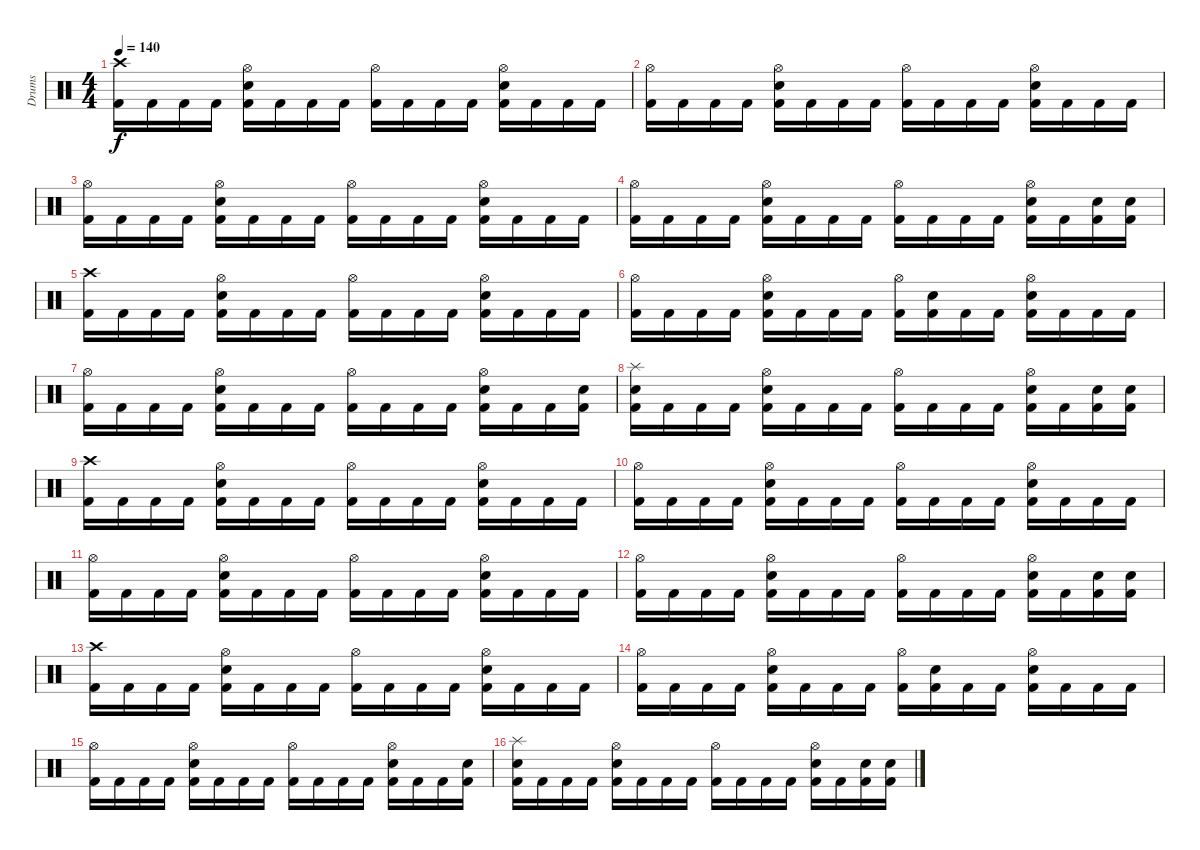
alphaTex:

\track ("Drums" "Drums") {instrument percussion}
\staff {score}
\articulation defaults
\ts (4 4)
\tempo 140
\clef neutral
\ks c
("Kick (hit) 2" "Crash high (hit)").16{dy f} "Kick (hit) 2".16 "Kick (hit) 2".16 "Kick (hit) 2".16 ("Kick (hit) 2" "Electric Snare (hit)" "Hi-Hat (open)").16 "Kick (hit) 2".16 "Kick (hit) 2".16 "Kick (hit) 2".16 ("Kick (hit) 2" "Hi-Hat (open)").16 "Kick (hit) 2".16 "Kick (hit) 2".16 "Kick (hit) 2".16 ("Kick (hit) 2" "Electric Snare (hit)" "Hi-Hat (open)").16 "Kick (hit) 2".16 "Kick (hit) 2".16 "Kick (hit) 2".16 |
("Kick (hit) 2" "Hi-Hat (open)").16 "Kick (hit) 2".16 "Kick (hit) 2".16 "Kick (hit) 2".16 ("Kick (hit) 2" "Electric Snare (hit)" "Hi-Hat (open)").16 "Kick (hit) 2".16 "Kick (hit) 2".16 "Kick (hit) 2".16 ("Kick (hit) 2" "Hi-Hat (open)").16 "Kick (hit) 2".16 "Kick (hit) 2".16 "Kick (hit) 2".16 ("Kick (hit) 2" "Electric Snare (hit)" "Hi-Hat (open)").16 "Kick (hit) 2".16 "Kick (hit) 2".16 "Kick (hit) 2".16 |
("Kick (hit) 2" "Hi-Hat (open)").16 "Kick (hit) 2".16 "Kick (hit) 2".16 "Kick (hit) 2".16 ("Kick (hit) 2" "Electric Snare (hit)" "Hi-Hat (open)").16 "Kick (hit) 2".16 "Kick (hit) 2".16 "Kick (hit) 2".16 ("Kick (hit) 2" "Hi-Hat (open)").16 "Kick (hit) 2".16 "Kick (hit) 2".16 "Kick (hit) 2".16 ("Kick (hit) 2" "Electric Snare (hit)" "Hi-Hat (open)").16 "Kick (hit) 2".16 "Kick (hit) 2".16 "Kick (hit) 2".16 |
("Kick (hit) 2" "Hi-Hat (open)").16 "Kick (hit) 2".16 "Kick (hit) 2".16 "Kick (hit) 2".16 ("Kick (hit) 2" "Electric Snare (hit)" "Hi-Hat (open)").16 "Kick (hit) 2".16 "Kick (hit) 2".16 "Kick (hit) 2".16 ("Kick (hit) 2" "Hi-Hat (open)").16 "Kick (hit) 2".16 "Kick (hit) 2".16 "Kick (hit) 2".16 ("Kick (hit) 2" "Electric Snare (hit)" "Hi-Hat (open)").16 "Kick (hit) 2".16 ("Kick (hit) 2" "Electric Snare (hit)").16 ("Kick (hit) 2" "Electric Snare (hit)").16 |
("Kick (hit) 2" "Crash high (hit)").16 "Kick (hit) 2".16 "Kick (hit) 2".16 "Kick (hit) 2".16 ("Kick (hit) 2" "Electric Snare (hit)" "Hi-Hat (open)").16 "Kick (hit) 2".16 "Kick (hit) 2".16 "Kick (hit) 2".16 ("Kick (hit) 2" "Hi-Hat (open)").16 "Kick (hit) 2".16 "Kick (hit) 2".16 "Kick (hit) 2".16 ("Kick (hit) 2" "Electric Snare (hit)" "Hi-Hat (open)").16 "Kick (hit) 2".16 "Kick (hit) 2".16 "Kick (hit) 2".16 |
("Kick (hit) 2" "Hi-Hat (open)").16 "Kick (hit) 2".16 "Kick (hit) 2".16 "Kick (hit) 2".16 ("Kick (hit) 2" "Electric Snare (hit)" "Hi-Hat (open)").16 "Kick (hit) 2".16 "Kick (hit) 2".16 "Kick (hit) 2".16 ("Kick (hit) 2" "Hi-Hat (open)").16 ("Kick (hit) 2" "Electric Snare (hit)").16 "Kick (hit) 2".16 "Kick (hit) 2".16 ("Kick (hit) 2" "Electric Snare (hit)" "Hi-Hat (open)").16 "Kick (hit) 2".16 "Kick (hit) 2".16 "Kick (hit) 2".16 |
("Kick (hit) 2" "Hi-Hat (open)").16 "Kick (hit) 2".16 "Kick (hit) 2".16 "Kick (hit) 2".16 ("Kick (hit) 2" "Electric Snare (hit)" "Hi-Hat (open)").16 "Kick (hit) 2".16 "Kick (hit) 2".16 "Kick (hit) 2".16 ("Kick (hit) 2" "Hi-Hat (open)").16 "Kick (hit) 2".16 "Kick (hit) 2".16 "Kick (hit) 2".16 ("Kick (hit) 2" "Electric Snare (hit)" "Hi-Hat (open)").16 "Kick (hit) 2".16 "Kick (hit) 2".16 ("Kick (hit) 2" "Electric Snare (hit)").16 |
("Kick (hit) 2" "Electric Snare (hit)" "Splash (hit)").16 "Kick (hit) 2".16 "Kick (hit) 2".16 "Kick (hit) 2".16 ("Kick (hit) 2" "Electric Snare (hit)" "Hi-Hat (open)").16 "Kick (hit) 2".16 "Kick (hit) 2".16 "Kick (hit) 2".16 ("Kick (hit) 2" "Hi-Hat (open)").16 "Kick (hit) 2".16 "Kick (hit) 2".16 "Kick (hit) 2".16 ("Kick (hit) 2" "Electric Snare (hit)" "Hi-Hat (open)").16 "Kick (hit) 2".16 ("Kick (hit) 2" "Electric Snare (hit)").16 ("Kick (hit) 2" "Electric Snare (hit)").16 |
("Kick (hit) 2" "Crash high (hit)").16 "Kick (hit) 2".16 "Kick (hit) 2".16 "Kick (hit) 2".16 ("Kick (hit) 2" "Electric Snare (hit)" "Hi-Hat (open)").16 "Kick (hit) 2".16 "Kick (hit) 2".16 "Kick (hit) 2".16 ("Kick (hit) 2" "Hi-Hat (open)").16 "Kick (hit) 2".16 "Kick (hit) 2".16 "Kick (hit) 2".16 ("Kick (hit) 2" "Electric Snare (hit)" "Hi-Hat (open)").16 "Kick (hit) 2".16 "Kick (hit) 2".16 "Kick (hit) 2".16 |
("Kick (hit) 2" "Hi-Hat (open)").16 "Kick (hit) 2".16 "Kick (hit) 2".16 "Kick (hit) 2".16 ("Kick (hit) 2" "Electric Snare (hit)" "Hi-Hat (open)").16 "Kick (hit) 2".16 "Kick (hit) 2".16 "Kick (hit) 2".16 ("Kick (hit) 2" "Hi-Hat (open)").16 "Kick (hit) 2".16 "Kick (hit) 2".16 "Kick (hit) 2".16 ("Kick (hit) 2" "Electric Snare (hit)" "Hi-Hat (open)").16 "Kick (hit) 2".16 "Kick (hit) 2".16 "Kick (hit) 2".16 |
("Kick (hit) 2" "Hi-Hat (open)").16 "Kick (hit) 2".16 "Kick (hit) 2".16 "Kick (hit) 2".16 ("Kick (hit) 2" "Electric Snare (hit)" "Hi-Hat (open)").16 "Kick (hit) 2".16 "Kick (hit) 2".16 "Kick (hit) 2".16 ("Kick (hit) 2" "Hi-Hat (open)").16 "Kick (hit) 2".16 "Kick (hit) 2".16 "Kick (hit) 2".16 ("Kick (hit) 2" "Electric Snare (hit)" "Hi-Hat (open)").16 "Kick (hit) 2".16 "Kick (hit) 2".16 "Kick (hit) 2".16 |
("Kick (hit) 2" "Hi-Hat (open)").16 "Kick (hit) 2".16 "Kick (hit) 2".16 "Kick (hit) 2".16 ("Kick (hit) 2" "Electric Snare (hit)" "Hi-Hat (open)").16 "Kick (hit) 2".16 "Kick (hit) 2".16 "Kick (hit) 2".16 ("Kick (hit) 2" "Hi-Hat (open)").16 "Kick (hit) 2".16 "Kick (hit) 2".16 "Kick (hit) 2".16 ("Kick (hit) 2" "Electric Snare (hit)" "Hi-Hat (open)").16 "Kick (hit) 2".16 ("Kick (hit) 2" "Electric Snare (hit)").16 ("Kick (hit) 2" "Electric Snare (hit)").16 |
("Kick (hit) 2" "Crash high (hit)").16 "Kick (hit) 2".16 "Kick (hit) 2".16 "Kick (hit) 2".16 ("Kick (hit) 2" "Electric Snare (hit)" "Hi-Hat (open)").16 "Kick (hit) 2".16 "Kick (hit) 2".16 "Kick (hit) 2".16 ("Kick (hit) 2" "Hi-Hat (open)").16 "Kick (hit) 2".16 "Kick (hit) 2".16 "Kick (hit) 2".16 ("Kick (hit) 2" "Electric Snare (hit)" "Hi-Hat (open)").16 "Kick (hit) 2".16 "Kick (hit) 2".16 "Kick (hit) 2".16 |
("Kick (hit) 2" "Hi-Hat (open)").16 "Kick (hit) 2".16 "Kick (hit) 2".16 "Kick (hit) 2".16 ("Kick (hit) 2" "Electric Snare (hit)" "Hi-Hat (open)").16 "Kick (hit) 2".16 "Kick (hit) 2".16 "Kick (hit) 2".16 ("Kick (hit) 2" "Hi-Hat (open)").16 ("Kick (hit) 2" "Electric Snare (hit)").16 "Kick (hit) 2".16 "Kick (hit) 2".16 ("Kick (hit) 2" "Electric Snare (hit)" "Hi-Hat (open)").16 "Kick (hit) 2".16 "Kick (hit) 2".16 "Kick (hit) 2".16 |
("Kick (hit) 2" "Hi-Hat (open)").16 "Kick (hit) 2".16 "Kick (hit) 2".16 "Kick (hit) 2".16 ("Kick (hit) 2" "Electric Snare (hit)" "Hi-Hat (open)").16 "Kick (hit) 2".16 "Kick (hit) 2".16 "Kick (hit) 2".16 ("Kick (hit) 2" "Hi-Hat (open)").16 "Kick (hit) 2".16 "Kick (hit) 2".16 "Kick (hit) 2".16 ("Kick (hit) 2" "Electric Snare (hit)" "Hi-Hat (open)").16 "Kick (hit) 2".16 "Kick (hit) 2".16 ("Kick (hit) 2" "Electric Snare (hit)").16 |
("Kick (hit) 2" "Electric Snare (hit)" "Splash (hit)").16 "Kick (hit) 2".16 "Kick (hit) 2".16 "Kick (hit) 2".16 ("Kick (hit) 2" "Electric Snare (hit)" "Hi-Hat (open)").16 "Kick (hit) 2".16 "Kick (hit) 2".16 "Kick (hit) 2".16 ("Kick (hit) 2" "Hi-Hat (open)").16 "Kick (hit) 2".16 "Kick (hit) 2".16 "Kick (hit) 2".16 ("Kick (hit) 2" "Electric Snare (hit)" "Hi-Hat (open)").16 "Kick (hit) 2".16 ("Kick (hit) 2" "Electric Snare (hit)").16 ("Kick (hit) 2" "Electric Snare (hit)").16
